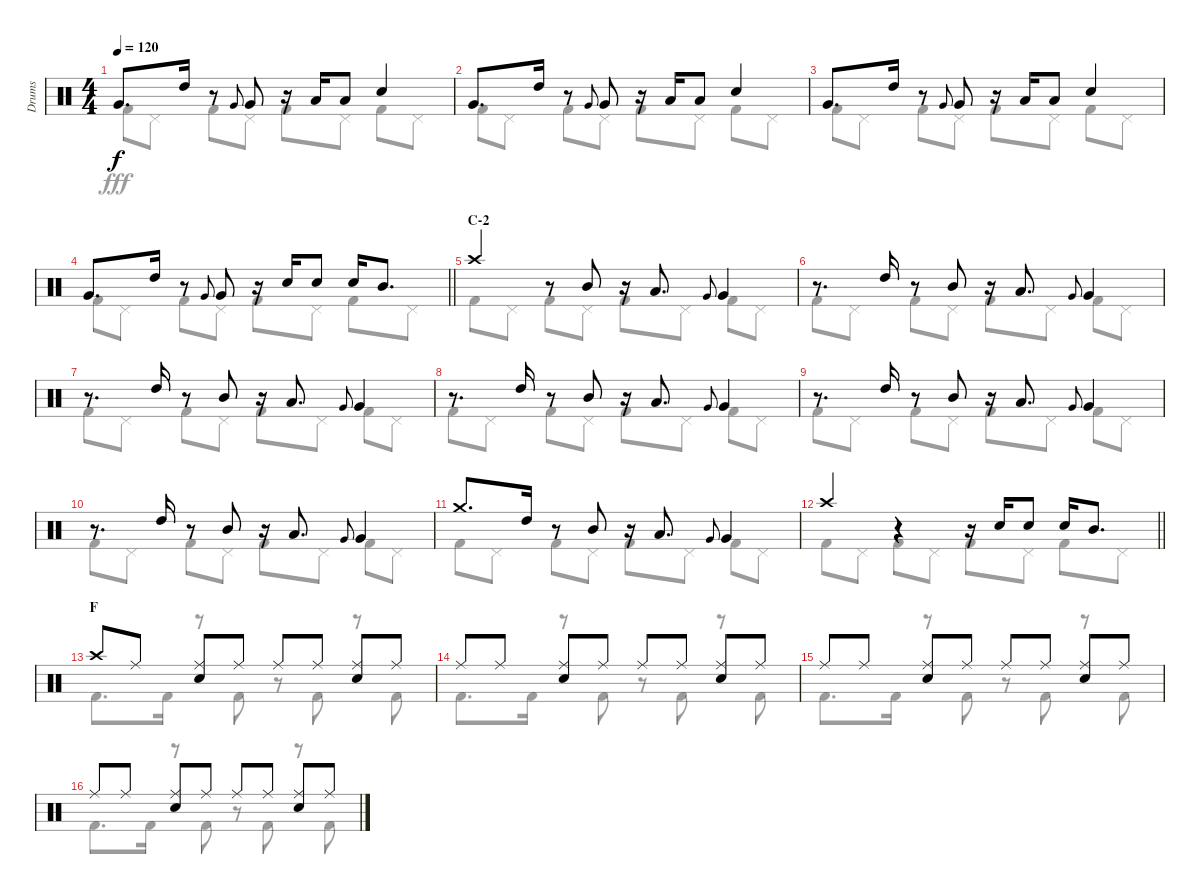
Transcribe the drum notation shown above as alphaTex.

\track ("Drums" "Drums") {instrument percussion}
\staff {score}
\articulation defaults
\voice
\ts (4 4)
\tempo 120
\clef neutral
\ks c "Very Low Tom (hit)".8{d dy f} "High Tom (hit)".16
r.8 "Very Low Tom (hit)".8{gr onbeat} "Very Low Tom (hit)".8 r.16 "Low Tom (hit)".16 "Low Tom (hit)".8 "Snare (hit) 2".4 |
"Very Low Tom (hit)".8{d} "High Tom (hit)".16 r.8 "Very Low Tom (hit)".8{gr onbeat} "Very Low Tom (hit)".8 r.16 "Low Tom (hit)".16 "Low Tom (hit)".8 "Snare (hit) 2".4 |
"Very Low Tom (hit)".8{d} "High Tom (hit)".16 r.8 "Very Low Tom (hit)".8{gr onbeat} "Very Low Tom (hit)".8 r.16 "Low Tom (hit)".16 "Low Tom (hit)".8 "Snare (hit) 2".4 |
\barLineRight lightlight "Very Low Tom (hit)".8{d} "High Tom (hit)".16
r.8 "Very Low Tom (hit)".8{gr onbeat} "Very Low Tom (hit)".8 r.16 "Snare (hit) 2".16 "Snare (hit) 2".8 "Snare (hit) 2".16 "Mid Tom (hit)".8{d} |
\section ("" "C-2")
"Crash high (hit)".4 r.8 "Mid Tom (hit)".8 r.16 "Low Tom (hit)".8{d} "Very Low Tom (hit)".8{gr onbeat} "Very Low Tom (hit)".4 |
r.8{d} "High Tom (hit)".16 r.8 "Mid Tom (hit)".8 r.16 "Low Tom (hit)".8{d} "Very Low Tom (hit)".8{gr onbeat} "Very Low Tom (hit)".4 |
r.8{d} "High Tom (hit)".16 r.8 "Mid Tom (hit)".8 r.16 "Low Tom (hit)".8{d} "Very Low Tom (hit)".8{gr onbeat} "Very Low Tom (hit)".4 |
r.8{d} "High Tom (hit)".16 r.8 "Mid Tom (hit)".8 r.16 "Low Tom (hit)".8{d} "Very Low Tom (hit)".8{gr onbeat} "Very Low Tom (hit)".4 |
r.8{d} "High Tom (hit)".16 r.8 "Mid Tom (hit)".8 r.16 "Low Tom (hit)".8{d} "Very Low Tom (hit)".8{gr onbeat} "Very Low Tom (hit)".4 |
r.8{d} "High Tom (hit)".16 r.8 "Mid Tom (hit)".8 r.16 "Low Tom (hit)".8{d} "Very Low Tom (hit)".8{gr onbeat} "Very Low Tom (hit)".4 |
"Crash medium (hit)".8{d} "High Tom (hit)".16 r.8 "Mid Tom (hit)".8 r.16 "Low Tom (hit)".8{d} "Very Low Tom (hit)".8{gr onbeat} "Very Low Tom (hit)".4 |
\barLineRight lightlight "Crash high (hit)".4
r.4 r.16 "Snare (hit) 2".16 "Snare (hit) 2".8 "Snare (hit) 2".16 "Mid Tom (hit)".8{d} |
\section ("" "F")
"Crash high (hit)".8 "Ride (middle)".8 ("Ride (middle)" "Snare (hit) 2").8 "Ride (middle)".8 "Ride (middle)".8 "Ride (middle)".8 ("Ride (middle)" "Snare (hit) 2").8 "Ride (middle)".8 |
"Ride (middle)".8 "Ride (middle)".8 ("Ride (middle)" "Snare (hit) 2").8 "Ride (middle)".8 "Ride (middle)".8 "Ride (middle)".8 ("Ride (middle)" "Snare (hit) 2").8 "Ride (middle)".8 |
"Ride (middle)".8 "Ride (middle)".8 ("Ride (middle)" "Snare (hit) 2").8 "Ride (middle)".8 "Ride (middle)".8 "Ride (middle)".8 ("Ride (middle)" "Snare (hit) 2").8 "Ride (middle)".8 |
"Ride (middle)".8 "Ride (middle)".8 ("Ride (middle)" "Snare (hit) 2").8 "Ride (middle)".8 "Ride (middle)".8 "Ride (middle)".8 ("Ride (middle)" "Snare (hit) 2").8 "Ride (middle)".8
\voice
\clef neutral
\ottava regular
\simile none
\ks c "Kick (hit) 2".8{dy fff} "Pedal Hi-Hat (hit)".8 "Kick (hit) 2".8 "Pedal Hi-Hat (hit)".8 "Kick (hit) 2".8 "Pedal Hi-Hat (hit)".8 "Kick (hit) 2".8 "Pedal Hi-Hat (hit)".8
|
"Kick (hit) 2".8 "Pedal Hi-Hat (hit)".8 "Kick (hit) 2".8 "Pedal Hi-Hat (hit)".8 "Kick (hit) 2".8 "Pedal Hi-Hat (hit)".8 "Kick (hit) 2".8 "Pedal Hi-Hat (hit)".8 |
"Kick (hit) 2".8 "Pedal Hi-Hat (hit)".8 "Kick (hit) 2".8 "Pedal Hi-Hat (hit)".8 "Kick (hit) 2".8 "Pedal Hi-Hat (hit)".8 "Kick (hit) 2".8 "Pedal Hi-Hat (hit)".8 |
\barLineRight lightlight "Kick (hit) 2".8 "Pedal Hi-Hat (hit)".8 "Kick (hit) 2".8 "Pedal Hi-Hat (hit)".8 "Kick (hit) 2".8 "Pedal Hi-Hat (hit)".8 "Kick (hit) 2".8 "Pedal Hi-Hat (hit)".8
|
"Kick (hit) 2".8 "Pedal Hi-Hat (hit)".8 "Kick (hit) 2".8 "Pedal Hi-Hat (hit)".8 "Kick (hit) 2".8 "Pedal Hi-Hat (hit)".8 "Kick (hit) 2".8 "Pedal Hi-Hat (hit)".8 |
"Kick (hit) 2".8 "Pedal Hi-Hat (hit)".8 "Kick (hit) 2".8 "Pedal Hi-Hat (hit)".8 "Kick (hit) 2".8 "Pedal Hi-Hat (hit)".8 "Kick (hit) 2".8 "Pedal Hi-Hat (hit)".8 |
"Kick (hit) 2".8 "Pedal Hi-Hat (hit)".8 "Kick (hit) 2".8 "Pedal Hi-Hat (hit)".8 "Kick (hit) 2".8 "Pedal Hi-Hat (hit)".8 "Kick (hit) 2".8 "Pedal Hi-Hat (hit)".8 |
"Kick (hit) 2".8 "Pedal Hi-Hat (hit)".8 "Kick (hit) 2".8 "Pedal Hi-Hat (hit)".8 "Kick (hit) 2".8 "Pedal Hi-Hat (hit)".8 "Kick (hit) 2".8 "Pedal Hi-Hat (hit)".8 |
"Kick (hit) 2".8 "Pedal Hi-Hat (hit)".8 "Kick (hit) 2".8 "Pedal Hi-Hat (hit)".8 "Kick (hit) 2".8 "Pedal Hi-Hat (hit)".8 "Kick (hit) 2".8 "Pedal Hi-Hat (hit)".8 |
"Kick (hit) 2".8 "Pedal Hi-Hat (hit)".8 "Kick (hit) 2".8 "Pedal Hi-Hat (hit)".8 "Kick (hit) 2".8 "Pedal Hi-Hat (hit)".8 "Kick (hit) 2".8 "Pedal Hi-Hat (hit)".8 |
"Kick (hit) 2".8 "Pedal Hi-Hat (hit)".8 "Kick (hit) 2".8 "Pedal Hi-Hat (hit)".8 "Kick (hit) 2".8 "Pedal Hi-Hat (hit)".8 "Kick (hit) 2".8 "Pedal Hi-Hat (hit)".8 |
\barLineRight lightlight "Kick (hit) 2".8 "Pedal Hi-Hat (hit)".8 "Kick (hit) 2".8 "Pedal Hi-Hat (hit)".8 "Kick (hit) 2".8 "Pedal Hi-Hat (hit)".8 "Kick (hit) 2".8 "Pedal Hi-Hat (hit)".8
|
"Kick (hit) 2".8{d} "Kick (hit) 2".16 r.8 "Kick (hit) 2".8 r.8 "Kick (hit) 2".8 r.8 "Kick (hit) 2".8 |
"Kick (hit) 2".8{d} "Kick (hit) 2".16 r.8 "Kick (hit) 2".8 r.8 "Kick (hit) 2".8 r.8 "Kick (hit) 2".8 |
"Kick (hit) 2".8{d} "Kick (hit) 2".16 r.8 "Kick (hit) 2".8 r.8 "Kick (hit) 2".8 r.8 "Kick (hit) 2".8 |
"Kick (hit) 2".8{d} "Kick (hit) 2".16 r.8 "Kick (hit) 2".8 r.8 "Kick (hit) 2".8 r.8 "Kick (hit) 2".8
